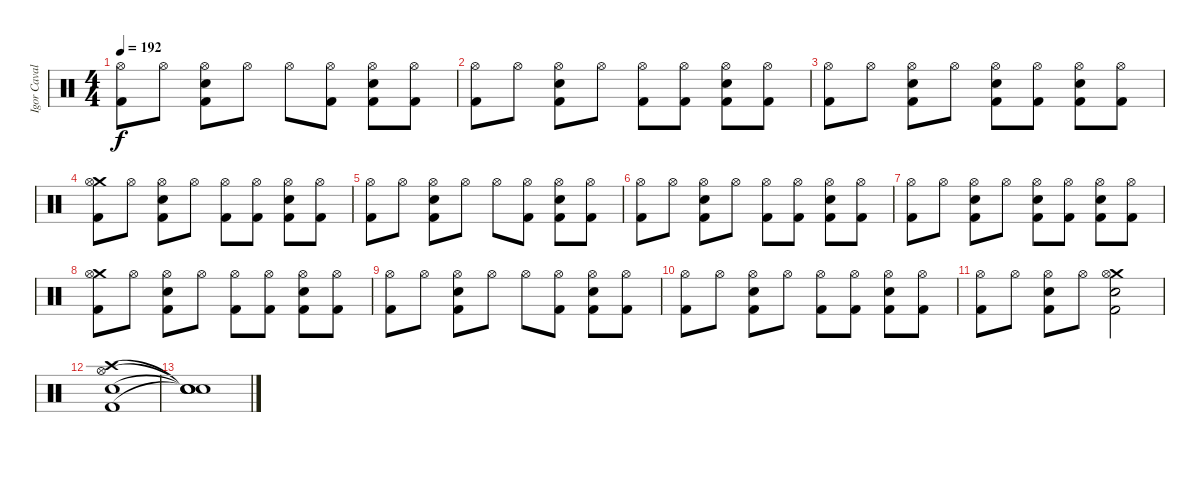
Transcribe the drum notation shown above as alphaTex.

\track ("Igor Cavalera" "Igor Caval") {instrument percussion}
\staff {score}
\articulation defaults
\ts (4 4)
\tempo 192
\clef neutral
\ks c
("Hi-Hat (open)" "Kick (hit) 2").8{dy f} "Hi-Hat (open)".8 ("Hi-Hat (open)" "Electric Snare (hit)" "Kick (hit) 2").8 "Hi-Hat (open)".8 "Hi-Hat (open)".8 ("Hi-Hat (open)" "Kick (hit) 2").8 ("Hi-Hat (open)" "Electric Snare (hit)" "Kick (hit) 2").8 ("Hi-Hat (open)" "Kick (hit) 2").8 |
("Hi-Hat (open)" "Kick (hit) 2").8 "Hi-Hat (open)".8 ("Hi-Hat (open)" "Electric Snare (hit)" "Kick (hit) 2").8 "Hi-Hat (open)".8 ("Hi-Hat (open)" "Kick (hit) 2").8 ("Hi-Hat (open)" "Kick (hit) 2").8 ("Hi-Hat (open)" "Electric Snare (hit)" "Kick (hit) 2").8 ("Hi-Hat (open)" "Kick (hit) 2").8 |
("Hi-Hat (open)" "Kick (hit) 2").8 "Hi-Hat (open)".8 ("Hi-Hat (open)" "Electric Snare (hit)" "Kick (hit) 2").8 "Hi-Hat (open)".8 ("Hi-Hat (open)" "Snare (hit) 2" "Kick (hit) 2").8 ("Hi-Hat (open)" "Kick (hit) 2").8 ("Hi-Hat (open)" "Electric Snare (hit)" "Kick (hit) 2").8 ("Hi-Hat (open)" "Kick (hit) 2").8 |
("Crash medium (hit)" "Hi-Hat (open)" "Kick (hit) 2").8 "Hi-Hat (open)".8 ("Hi-Hat (open)" "Electric Snare (hit)" "Kick (hit) 2").8 "Hi-Hat (open)".8 ("Hi-Hat (open)" "Kick (hit) 2").8 ("Hi-Hat (open)" "Kick (hit) 2").8 ("Hi-Hat (open)" "Electric Snare (hit)" "Kick (hit) 2").8 ("Hi-Hat (open)" "Kick (hit) 2").8 |
("Hi-Hat (open)" "Kick (hit) 2").8 "Hi-Hat (open)".8 ("Hi-Hat (open)" "Electric Snare (hit)" "Kick (hit) 2").8 "Hi-Hat (open)".8 "Hi-Hat (open)".8 ("Hi-Hat (open)" "Kick (hit) 2").8 ("Hi-Hat (open)" "Electric Snare (hit)" "Kick (hit) 2").8 ("Hi-Hat (open)" "Kick (hit) 2").8 |
("Hi-Hat (open)" "Kick (hit) 2").8 "Hi-Hat (open)".8 ("Hi-Hat (open)" "Electric Snare (hit)" "Kick (hit) 2").8 "Hi-Hat (open)".8 ("Hi-Hat (open)" "Kick (hit) 2").8 ("Hi-Hat (open)" "Kick (hit) 2").8 ("Hi-Hat (open)" "Electric Snare (hit)" "Kick (hit) 2").8 ("Hi-Hat (open)" "Kick (hit) 2").8 |
("Hi-Hat (open)" "Kick (hit) 2").8 "Hi-Hat (open)".8 ("Hi-Hat (open)" "Electric Snare (hit)" "Kick (hit) 2").8 "Hi-Hat (open)".8 ("Hi-Hat (open)" "Snare (hit) 2" "Kick (hit) 2").8 ("Hi-Hat (open)" "Kick (hit) 2").8 ("Hi-Hat (open)" "Electric Snare (hit)" "Kick (hit) 2").8 ("Hi-Hat (open)" "Kick (hit) 2").8 |
("Crash medium (hit)" "Hi-Hat (open)" "Kick (hit) 2").8 "Hi-Hat (open)".8 ("Hi-Hat (open)" "Electric Snare (hit)" "Kick (hit) 2").8 "Hi-Hat (open)".8 ("Hi-Hat (open)" "Kick (hit) 2").8 ("Hi-Hat (open)" "Kick (hit) 2").8 ("Hi-Hat (open)" "Electric Snare (hit)" "Kick (hit) 2").8 ("Hi-Hat (open)" "Kick (hit) 2").8 |
("Hi-Hat (open)" "Kick (hit) 2").8 "Hi-Hat (open)".8 ("Hi-Hat (open)" "Electric Snare (hit)" "Kick (hit) 2").8 "Hi-Hat (open)".8 "Hi-Hat (open)".8 ("Hi-Hat (open)" "Kick (hit) 2").8 ("Hi-Hat (open)" "Electric Snare (hit)" "Kick (hit) 2").8 ("Hi-Hat (open)" "Kick (hit) 2").8 |
("Hi-Hat (open)" "Kick (hit) 2").8 "Hi-Hat (open)".8 ("Hi-Hat (open)" "Electric Snare (hit)" "Kick (hit) 2").8 "Hi-Hat (open)".8 ("Hi-Hat (open)" "Kick (hit) 2").8 ("Hi-Hat (open)" "Kick (hit) 2").8 ("Hi-Hat (open)" "Electric Snare (hit)" "Kick (hit) 2").8 ("Hi-Hat (open)" "Kick (hit) 2").8 |
("Hi-Hat (open)" "Kick (hit) 2").8 "Hi-Hat (open)".8 ("Hi-Hat (open)" "Electric Snare (hit)" "Kick (hit) 2").8 "Hi-Hat (open)".8 ("Crash medium (hit)" "Hi-Hat (open)" "Electric Snare (hit)" "Kick (hit) 2").2 |
("Crash high (hit)" "Hi-Hat (open)" "Electric Snare (hit)" "Kick (hit) 2").1 |
("Snare (hit)"{t} "Snare (hit)"{t} "Snare (hit)"{t} "Snare (hit)"{t}).1
